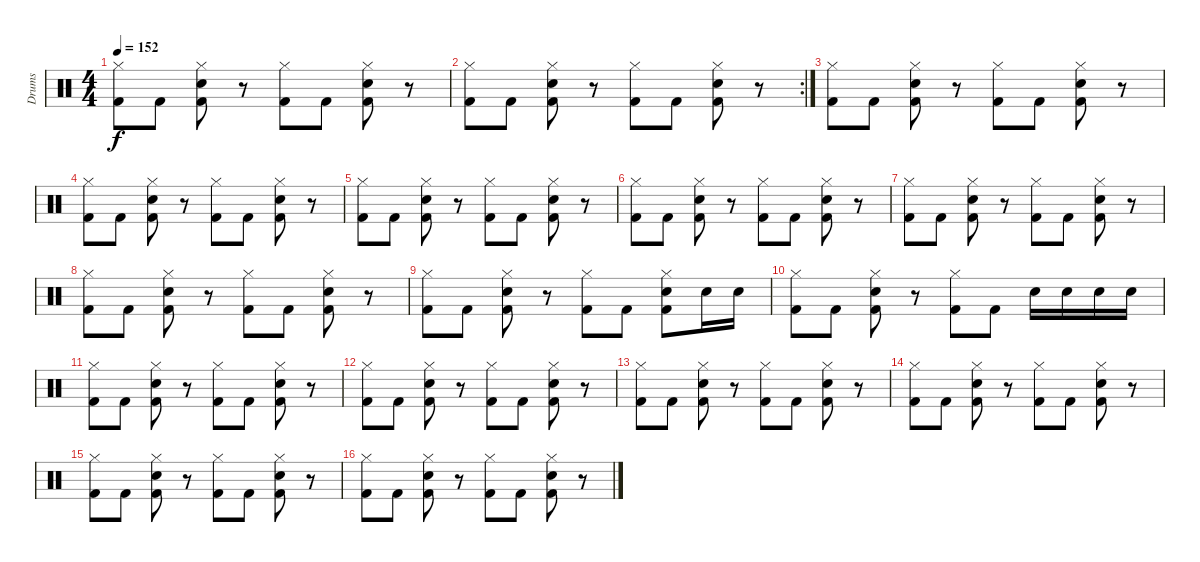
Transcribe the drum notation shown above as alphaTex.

\track ("Drums" "Drums") {instrument percussion}
\staff {score}
\articulation defaults
\ts (4 4)
\tempo 152
\clef neutral
\ks c
("Hi-Hat (closed)" "Kick (hit) 2").8{dy f} "Kick (hit) 2".8 ("Hi-Hat (closed)" "Electric Snare (hit)" "Kick (hit) 2").8 r.8 ("Hi-Hat (closed)" "Kick (hit) 2").8 "Kick (hit) 2".8 ("Hi-Hat (closed)" "Electric Snare (hit)" "Kick (hit) 2").8 r.8 |
\rc 2
("Hi-Hat (closed)" "Kick (hit) 2").8 "Kick (hit) 2".8 ("Hi-Hat (closed)" "Electric Snare (hit)" "Kick (hit) 2").8 r.8 ("Hi-Hat (closed)" "Kick (hit) 2").8 "Kick (hit) 2".8 ("Hi-Hat (closed)" "Electric Snare (hit)" "Kick (hit) 2").8 r.8 |
("Hi-Hat (closed)" "Kick (hit) 2").8 "Kick (hit) 2".8 ("Hi-Hat (closed)" "Electric Snare (hit)" "Kick (hit) 2").8 r.8 ("Hi-Hat (closed)" "Kick (hit) 2").8 "Kick (hit) 2".8 ("Hi-Hat (closed)" "Electric Snare (hit)" "Kick (hit) 2").8 r.8 |
("Hi-Hat (closed)" "Kick (hit) 2").8 "Kick (hit) 2".8 ("Hi-Hat (closed)" "Electric Snare (hit)" "Kick (hit) 2").8 r.8 ("Hi-Hat (closed)" "Kick (hit) 2").8 "Kick (hit) 2".8 ("Hi-Hat (closed)" "Electric Snare (hit)" "Kick (hit) 2").8 r.8 |
("Hi-Hat (closed)" "Kick (hit) 2").8 "Kick (hit) 2".8 ("Hi-Hat (closed)" "Electric Snare (hit)" "Kick (hit) 2").8 r.8 ("Hi-Hat (closed)" "Kick (hit) 2").8 "Kick (hit) 2".8 ("Hi-Hat (closed)" "Electric Snare (hit)" "Kick (hit) 2").8 r.8 |
("Hi-Hat (closed)" "Kick (hit) 2").8 "Kick (hit) 2".8 ("Hi-Hat (closed)" "Electric Snare (hit)" "Kick (hit) 2").8 r.8 ("Hi-Hat (closed)" "Kick (hit) 2").8 "Kick (hit) 2".8 ("Hi-Hat (closed)" "Electric Snare (hit)" "Kick (hit) 2").8 r.8 |
("Hi-Hat (closed)" "Kick (hit) 2").8 "Kick (hit) 2".8 ("Hi-Hat (closed)" "Electric Snare (hit)" "Kick (hit) 2").8 r.8 ("Hi-Hat (closed)" "Kick (hit) 2").8 "Kick (hit) 2".8 ("Hi-Hat (closed)" "Electric Snare (hit)" "Kick (hit) 2").8 r.8 |
("Hi-Hat (closed)" "Kick (hit) 2").8 "Kick (hit) 2".8 ("Hi-Hat (closed)" "Electric Snare (hit)" "Kick (hit) 2").8 r.8 ("Hi-Hat (closed)" "Kick (hit) 2").8 "Kick (hit) 2".8 ("Hi-Hat (closed)" "Electric Snare (hit)" "Kick (hit) 2").8 r.8 |
("Hi-Hat (closed)" "Kick (hit) 2").8 "Kick (hit) 2".8 ("Hi-Hat (closed)" "Electric Snare (hit)" "Kick (hit) 2").8 r.8 ("Hi-Hat (closed)" "Kick (hit) 2").8 "Kick (hit) 2".8 ("Hi-Hat (closed)" "Electric Snare (hit)" "Kick (hit) 2").8 "Snare (hit) 2".16 "Snare (hit) 2".16 |
("Hi-Hat (closed)" "Kick (hit) 2").8 "Kick (hit) 2".8 ("Hi-Hat (closed)" "Electric Snare (hit)" "Kick (hit) 2").8 r.8 ("Hi-Hat (closed)" "Kick (hit) 2").8 "Kick (hit) 2".8 "Snare (hit) 2".16 "Snare (hit) 2".16 "Snare (hit) 2".16 "Snare (hit) 2".16 |
("Hi-Hat (closed)" "Kick (hit) 2").8 "Kick (hit) 2".8 ("Hi-Hat (closed)" "Electric Snare (hit)" "Kick (hit) 2").8 r.8 ("Hi-Hat (closed)" "Kick (hit) 2").8 "Kick (hit) 2".8 ("Hi-Hat (closed)" "Electric Snare (hit)" "Kick (hit) 2").8 r.8 |
("Hi-Hat (closed)" "Kick (hit) 2").8 "Kick (hit) 2".8 ("Hi-Hat (closed)" "Electric Snare (hit)" "Kick (hit) 2").8 r.8 ("Hi-Hat (closed)" "Kick (hit) 2").8 "Kick (hit) 2".8 ("Hi-Hat (closed)" "Electric Snare (hit)" "Kick (hit) 2").8 r.8 |
("Hi-Hat (closed)" "Kick (hit) 2").8 "Kick (hit) 2".8 ("Hi-Hat (closed)" "Electric Snare (hit)" "Kick (hit) 2").8 r.8 ("Hi-Hat (closed)" "Kick (hit) 2").8 "Kick (hit) 2".8 ("Hi-Hat (closed)" "Electric Snare (hit)" "Kick (hit) 2").8 r.8 |
("Hi-Hat (closed)" "Kick (hit) 2").8 "Kick (hit) 2".8 ("Hi-Hat (closed)" "Electric Snare (hit)" "Kick (hit) 2").8 r.8 ("Hi-Hat (closed)" "Kick (hit) 2").8 "Kick (hit) 2".8 ("Hi-Hat (closed)" "Electric Snare (hit)" "Kick (hit) 2").8 r.8 |
("Hi-Hat (closed)" "Kick (hit) 2").8 "Kick (hit) 2".8 ("Hi-Hat (closed)" "Electric Snare (hit)" "Kick (hit) 2").8 r.8 ("Hi-Hat (closed)" "Kick (hit) 2").8 "Kick (hit) 2".8 ("Hi-Hat (closed)" "Electric Snare (hit)" "Kick (hit) 2").8 r.8 |
("Hi-Hat (closed)" "Kick (hit) 2").8 "Kick (hit) 2".8 ("Hi-Hat (closed)" "Electric Snare (hit)" "Kick (hit) 2").8 r.8 ("Hi-Hat (closed)" "Kick (hit) 2").8 "Kick (hit) 2".8 ("Hi-Hat (closed)" "Electric Snare (hit)" "Kick (hit) 2").8 r.8
